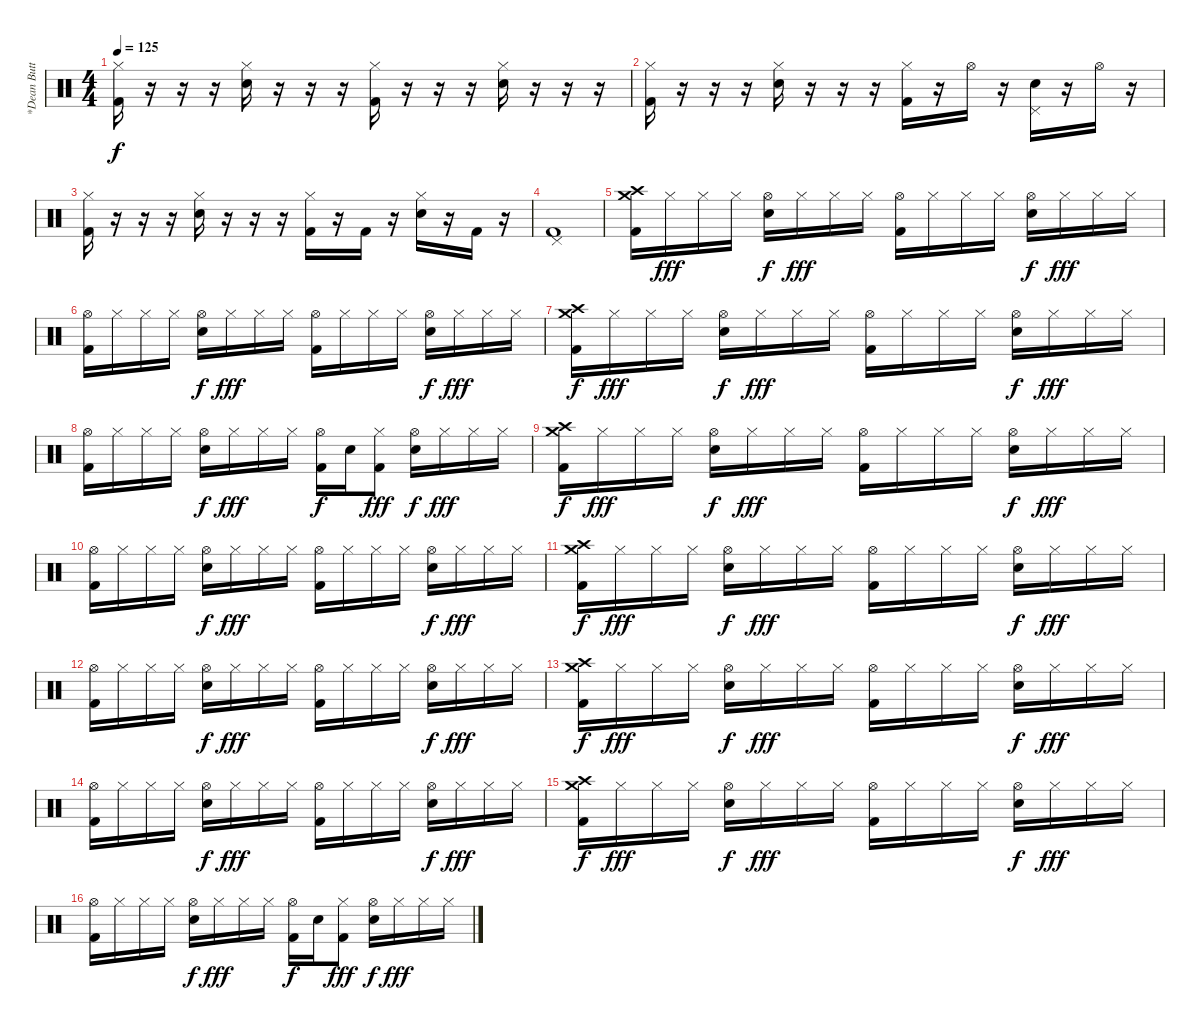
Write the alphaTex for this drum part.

\track ("*Dean Butterworth (Drum)" "*Dean Butt") {instrument percussion}
\staff {score}
\articulation defaults
\ts (4 4)
\tempo 125
\clef neutral
\ks c
("Hi-Hat (closed)" "Kick (hit) 2").16{dy f} r.16 r.16 r.16 ("Hi-Hat (closed)" "Snare (hit) 2").16 r.16 r.16 r.16 ("Hi-Hat (closed)" "Kick (hit) 2").16 r.16 r.16 r.16 ("Hi-Hat (closed)" "Snare (hit) 2").16 r.16 r.16 r.16 |
("Hi-Hat (closed)" "Kick (hit) 2").16 r.16 r.16 r.16 ("Hi-Hat (closed)" "Snare (hit) 2").16 r.16 r.16 r.16 ("Hi-Hat (closed)" "Kick (hit) 2").16 r.16 "Hi-Hat (open)".16 r.16 ("Pedal Hi-Hat (hit)" "Snare (hit) 2").16 r.16 "Hi-Hat (open)".16 r.16 |
("Hi-Hat (closed)" "Kick (hit) 2").16 r.16 r.16 r.16 ("Hi-Hat (closed)" "Snare (hit) 2").16 r.16 r.16 r.16 ("Hi-Hat (closed)" "Kick (hit) 2").16 r.16 "Kick (hit) 2".16 r.16 ("Hi-Hat (closed)" "Snare (hit) 2").16 r.16 "Kick (hit) 2".16 r.16 |
("Pedal Hi-Hat (hit)" "Kick (hit) 2").1 |
("Crash high (hit)" "Crash medium (hit)" "Kick (hit) 2").16 "Hi-Hat (closed)".16{dy fff} "Hi-Hat (closed)".16 "Hi-Hat (closed)".16 ("Hi-Hat (open)" "Electric Snare (hit)").16{dy f} "Hi-Hat (closed)".16{dy fff} "Hi-Hat (closed)".16 "Hi-Hat (closed)".16 ("Hi-Hat (open)" "Kick (hit) 2").16 "Hi-Hat (closed)".16 "Hi-Hat (closed)".16 "Hi-Hat (closed)".16 ("Hi-Hat (open)" "Electric Snare (hit)").16{dy f} "Hi-Hat (closed)".16{dy fff} "Hi-Hat (closed)".16 "Hi-Hat (closed)".16 |
("Hi-Hat (open)" "Kick (hit) 2").16 "Hi-Hat (closed)".16 "Hi-Hat (closed)".16 "Hi-Hat (closed)".16 ("Hi-Hat (open)" "Electric Snare (hit)").16{dy f} "Hi-Hat (closed)".16{dy fff} "Hi-Hat (closed)".16 "Hi-Hat (closed)".16 ("Hi-Hat (open)" "Kick (hit) 2").16 "Hi-Hat (closed)".16 "Hi-Hat (closed)".16 "Hi-Hat (closed)".16 ("Hi-Hat (open)" "Electric Snare (hit)").16{dy f} "Hi-Hat (closed)".16{dy fff} "Hi-Hat (closed)".16 "Hi-Hat (closed)".16 |
("Crash high (hit)" "Crash medium (hit)" "Kick (hit) 2").16{dy f} "Hi-Hat (closed)".16{dy fff} "Hi-Hat (closed)".16 "Hi-Hat (closed)".16 ("Hi-Hat (open)" "Electric Snare (hit)").16{dy f} "Hi-Hat (closed)".16{dy fff} "Hi-Hat (closed)".16 "Hi-Hat (closed)".16 ("Hi-Hat (open)" "Kick (hit) 2").16 "Hi-Hat (closed)".16 "Hi-Hat (closed)".16 "Hi-Hat (closed)".16 ("Hi-Hat (open)" "Electric Snare (hit)").16{dy f} "Hi-Hat (closed)".16{dy fff} "Hi-Hat (closed)".16 "Hi-Hat (closed)".16 |
("Hi-Hat (open)" "Kick (hit) 2").16 "Hi-Hat (closed)".16 "Hi-Hat (closed)".16 "Hi-Hat (closed)".16 ("Hi-Hat (open)" "Electric Snare (hit)").16{dy f} "Hi-Hat (closed)".16{dy fff} "Hi-Hat (closed)".16 "Hi-Hat (closed)".16 ("Hi-Hat (open)" "Kick (hit) 2").16{dy f} "Electric Snare (hit)".16 ("Hi-Hat (closed)" "Kick (hit) 2").8{dy fff} ("Hi-Hat (open)" "Electric Snare (hit)").16{dy f} "Hi-Hat (closed)".16{dy fff} "Hi-Hat (closed)".16 "Hi-Hat (closed)".16 |
("Crash high (hit)" "Crash medium (hit)" "Kick (hit) 2").16{dy f} "Hi-Hat (closed)".16{dy fff} "Hi-Hat (closed)".16 "Hi-Hat (closed)".16 ("Hi-Hat (open)" "Electric Snare (hit)").16{dy f} "Hi-Hat (closed)".16{dy fff} "Hi-Hat (closed)".16 "Hi-Hat (closed)".16 ("Hi-Hat (open)" "Kick (hit) 2").16 "Hi-Hat (closed)".16 "Hi-Hat (closed)".16 "Hi-Hat (closed)".16 ("Hi-Hat (open)" "Electric Snare (hit)").16{dy f} "Hi-Hat (closed)".16{dy fff} "Hi-Hat (closed)".16 "Hi-Hat (closed)".16 |
("Hi-Hat (open)" "Kick (hit) 2").16 "Hi-Hat (closed)".16 "Hi-Hat (closed)".16 "Hi-Hat (closed)".16 ("Hi-Hat (open)" "Electric Snare (hit)").16{dy f} "Hi-Hat (closed)".16{dy fff} "Hi-Hat (closed)".16 "Hi-Hat (closed)".16 ("Hi-Hat (open)" "Kick (hit) 2").16 "Hi-Hat (closed)".16 "Hi-Hat (closed)".16 "Hi-Hat (closed)".16 ("Hi-Hat (open)" "Electric Snare (hit)").16{dy f} "Hi-Hat (closed)".16{dy fff} "Hi-Hat (closed)".16 "Hi-Hat (closed)".16 |
("Crash high (hit)" "Crash medium (hit)" "Kick (hit) 2").16{dy f} "Hi-Hat (closed)".16{dy fff} "Hi-Hat (closed)".16 "Hi-Hat (closed)".16 ("Hi-Hat (open)" "Electric Snare (hit)").16{dy f} "Hi-Hat (closed)".16{dy fff} "Hi-Hat (closed)".16 "Hi-Hat (closed)".16 ("Hi-Hat (open)" "Kick (hit) 2").16 "Hi-Hat (closed)".16 "Hi-Hat (closed)".16 "Hi-Hat (closed)".16 ("Hi-Hat (open)" "Electric Snare (hit)").16{dy f} "Hi-Hat (closed)".16{dy fff} "Hi-Hat (closed)".16 "Hi-Hat (closed)".16 |
("Hi-Hat (open)" "Kick (hit) 2").16 "Hi-Hat (closed)".16 "Hi-Hat (closed)".16 "Hi-Hat (closed)".16 ("Hi-Hat (open)" "Electric Snare (hit)").16{dy f} "Hi-Hat (closed)".16{dy fff} "Hi-Hat (closed)".16 "Hi-Hat (closed)".16 ("Hi-Hat (open)" "Kick (hit) 2").16 "Hi-Hat (closed)".16 "Hi-Hat (closed)".16 "Hi-Hat (closed)".16 ("Hi-Hat (open)" "Electric Snare (hit)").16{dy f} "Hi-Hat (closed)".16{dy fff} "Hi-Hat (closed)".16 "Hi-Hat (closed)".16 |
("Crash high (hit)" "Crash medium (hit)" "Kick (hit) 2").16{dy f} "Hi-Hat (closed)".16{dy fff} "Hi-Hat (closed)".16 "Hi-Hat (closed)".16 ("Hi-Hat (open)" "Electric Snare (hit)").16{dy f} "Hi-Hat (closed)".16{dy fff} "Hi-Hat (closed)".16 "Hi-Hat (closed)".16 ("Hi-Hat (open)" "Kick (hit) 2").16 "Hi-Hat (closed)".16 "Hi-Hat (closed)".16 "Hi-Hat (closed)".16 ("Hi-Hat (open)" "Electric Snare (hit)").16{dy f} "Hi-Hat (closed)".16{dy fff} "Hi-Hat (closed)".16 "Hi-Hat (closed)".16 |
("Hi-Hat (open)" "Kick (hit) 2").16 "Hi-Hat (closed)".16 "Hi-Hat (closed)".16 "Hi-Hat (closed)".16 ("Hi-Hat (open)" "Electric Snare (hit)").16{dy f} "Hi-Hat (closed)".16{dy fff} "Hi-Hat (closed)".16 "Hi-Hat (closed)".16 ("Hi-Hat (open)" "Kick (hit) 2").16 "Hi-Hat (closed)".16 "Hi-Hat (closed)".16 "Hi-Hat (closed)".16 ("Hi-Hat (open)" "Electric Snare (hit)").16{dy f} "Hi-Hat (closed)".16{dy fff} "Hi-Hat (closed)".16 "Hi-Hat (closed)".16 |
("Crash high (hit)" "Crash medium (hit)" "Kick (hit) 2").16{dy f} "Hi-Hat (closed)".16{dy fff} "Hi-Hat (closed)".16 "Hi-Hat (closed)".16 ("Hi-Hat (open)" "Electric Snare (hit)").16{dy f} "Hi-Hat (closed)".16{dy fff} "Hi-Hat (closed)".16 "Hi-Hat (closed)".16 ("Hi-Hat (open)" "Kick (hit) 2").16 "Hi-Hat (closed)".16 "Hi-Hat (closed)".16 "Hi-Hat (closed)".16 ("Hi-Hat (open)" "Electric Snare (hit)").16{dy f} "Hi-Hat (closed)".16{dy fff} "Hi-Hat (closed)".16 "Hi-Hat (closed)".16 |
("Hi-Hat (open)" "Kick (hit) 2").16 "Hi-Hat (closed)".16 "Hi-Hat (closed)".16 "Hi-Hat (closed)".16 ("Hi-Hat (open)" "Electric Snare (hit)").16{dy f} "Hi-Hat (closed)".16{dy fff} "Hi-Hat (closed)".16 "Hi-Hat (closed)".16 ("Hi-Hat (open)" "Kick (hit) 2").16{dy f} "Electric Snare (hit)".16 ("Hi-Hat (closed)" "Kick (hit) 2").8{dy fff} ("Hi-Hat (open)" "Electric Snare (hit)").16{dy f} "Hi-Hat (closed)".16{dy fff} "Hi-Hat (closed)".16 "Hi-Hat (closed)".16
